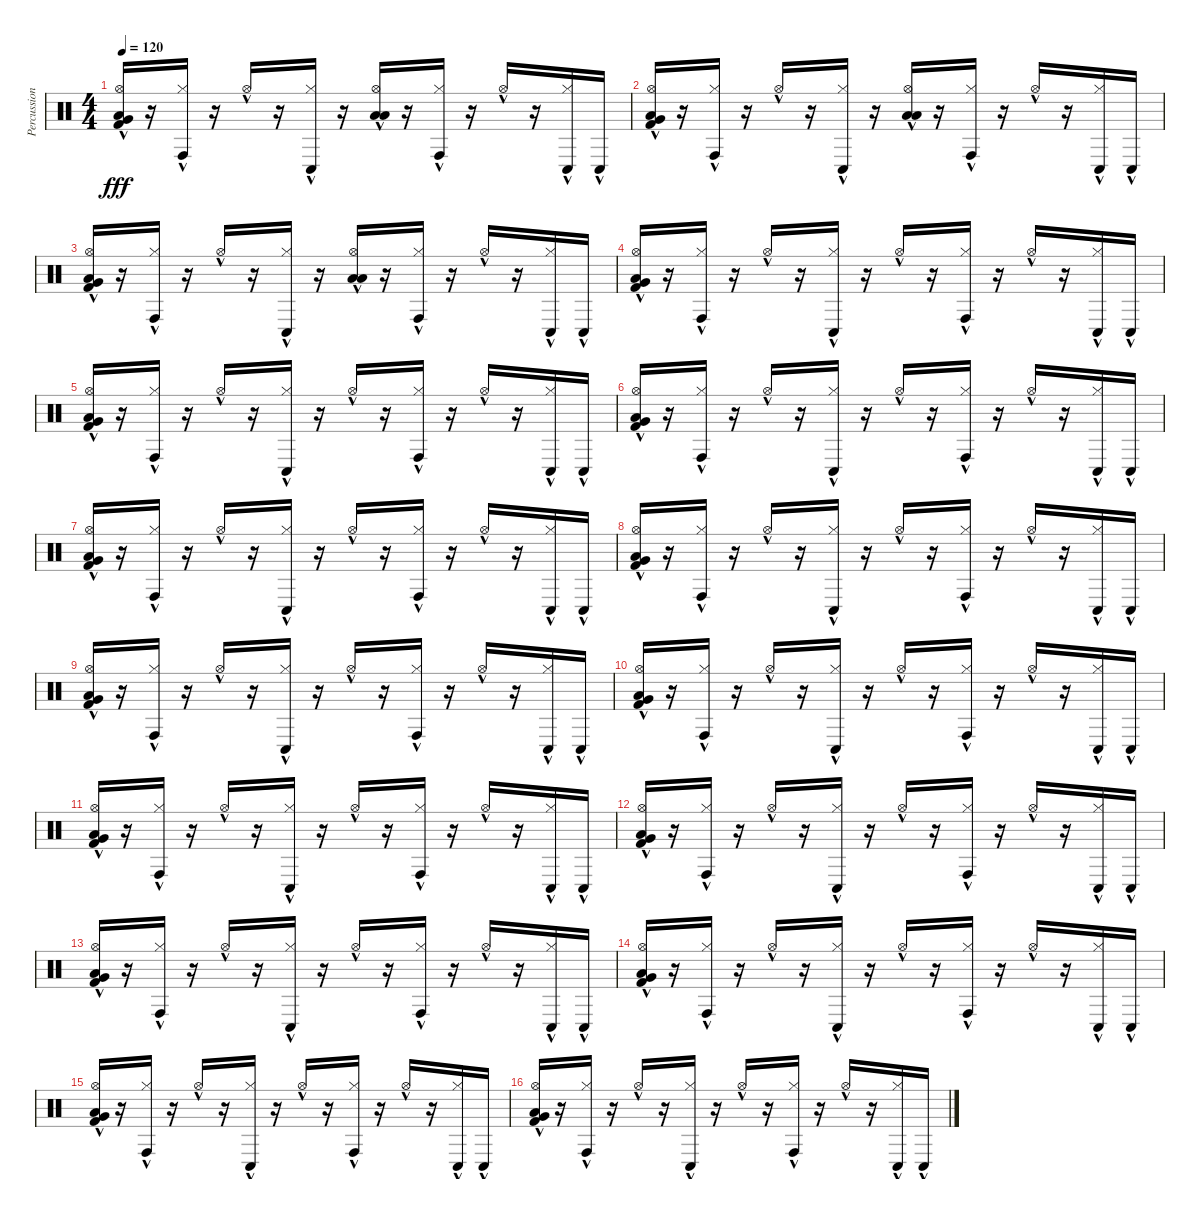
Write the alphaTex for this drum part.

\track ("Percussion" "Percussion") {instrument percussion}
\staff {score}
\articulation defaults
\ts (4 4)
\tempo 120
\clef neutral
\ks c
("Hi-Hat (open)"{hac} "Very Low Tom (hit)"{hac} "Low Floor Tom (hit)"{hac} "Kick (hit) 2"{hac}).16{dy fff} r.16 ("Hi-Hat (closed)"{hac} "Conga high (hit)"{hac}).16 r.16 "Hi-Hat (open)"{hac}.16 r.16 ("Hi-Hat (closed)"{hac} "Conga low (hit)"{hac}).16 r.16 ("Hi-Hat (open)"{hac} "Low Floor Tom (hit)"{hac} "Low Floor Tom (hit)"{hac}).16 r.16 ("Hi-Hat (closed)"{hac} "Conga high (hit)"{hac}).16 r.16 "Hi-Hat (open)"{hac}.16 r.16 ("Hi-Hat (closed)"{hac} "Conga low (hit)"{hac}).16 "Conga low (hit)"{hac}.16 |
("Hi-Hat (open)"{hac} "Very Low Tom (hit)"{hac} "Low Floor Tom (hit)"{hac} "Kick (hit) 2"{hac}).16 r.16 ("Hi-Hat (closed)"{hac} "Conga high (hit)"{hac}).16 r.16 "Hi-Hat (open)"{hac}.16 r.16 ("Hi-Hat (closed)"{hac} "Conga low (hit)"{hac}).16 r.16 ("Hi-Hat (open)"{hac} "Low Floor Tom (hit)"{hac} "Low Floor Tom (hit)"{hac}).16 r.16 ("Hi-Hat (closed)"{hac} "Conga high (hit)"{hac}).16 r.16 "Hi-Hat (open)"{hac}.16 r.16 ("Hi-Hat (closed)"{hac} "Conga low (hit)"{hac}).16 "Conga low (hit)"{hac}.16 |
("Hi-Hat (open)"{hac} "Very Low Tom (hit)"{hac} "Low Floor Tom (hit)"{hac} "Kick (hit) 2"{hac}).16 r.16 ("Hi-Hat (closed)"{hac} "Conga high (hit)"{hac}).16 r.16 "Hi-Hat (open)"{hac}.16 r.16 ("Hi-Hat (closed)"{hac} "Conga low (hit)"{hac}).16 r.16 ("Hi-Hat (open)"{hac} "Low Floor Tom (hit)"{hac} "Low Floor Tom (hit)"{hac}).16 r.16 ("Hi-Hat (closed)"{hac} "Conga high (hit)"{hac}).16 r.16 "Hi-Hat (open)"{hac}.16 r.16 ("Hi-Hat (closed)"{hac} "Conga low (hit)"{hac}).16 "Conga low (hit)"{hac}.16 |
("Hi-Hat (open)"{hac} "Very Low Tom (hit)"{hac} "Low Floor Tom (hit)"{hac} "Kick (hit) 2"{hac}).16 r.16 ("Hi-Hat (closed)"{hac} "Conga high (hit)"{hac}).16 r.16 "Hi-Hat (open)"{hac}.16 r.16 ("Hi-Hat (closed)"{hac} "Conga low (hit)"{hac}).16 r.16 "Hi-Hat (open)"{hac}.16 r.16 ("Hi-Hat (closed)"{hac} "Conga high (hit)"{hac}).16 r.16 "Hi-Hat (open)"{hac}.16 r.16 ("Hi-Hat (closed)"{hac} "Conga low (hit)"{hac}).16 "Conga low (hit)"{hac}.16 |
("Hi-Hat (open)"{hac} "Very Low Tom (hit)"{hac} "Low Floor Tom (hit)"{hac} "Kick (hit) 2"{hac}).16 r.16 ("Hi-Hat (closed)"{hac} "Conga high (hit)"{hac}).16 r.16 "Hi-Hat (open)"{hac}.16 r.16 ("Hi-Hat (closed)"{hac} "Conga low (hit)"{hac}).16 r.16 "Hi-Hat (open)"{hac}.16 r.16 ("Hi-Hat (closed)"{hac} "Conga high (hit)"{hac}).16 r.16 "Hi-Hat (open)"{hac}.16 r.16 ("Hi-Hat (closed)"{hac} "Conga low (hit)"{hac}).16 "Conga low (hit)"{hac}.16 |
("Hi-Hat (open)"{hac} "Very Low Tom (hit)"{hac} "Low Floor Tom (hit)"{hac} "Kick (hit) 2"{hac}).16 r.16 ("Hi-Hat (closed)"{hac} "Conga high (hit)"{hac}).16 r.16 "Hi-Hat (open)"{hac}.16 r.16 ("Hi-Hat (closed)"{hac} "Conga low (hit)"{hac}).16 r.16 "Hi-Hat (open)"{hac}.16 r.16 ("Hi-Hat (closed)"{hac} "Conga high (hit)"{hac}).16 r.16 "Hi-Hat (open)"{hac}.16 r.16 ("Hi-Hat (closed)"{hac} "Conga low (hit)"{hac}).16 "Conga low (hit)"{hac}.16 |
("Hi-Hat (open)"{hac} "Very Low Tom (hit)"{hac} "Low Floor Tom (hit)"{hac} "Kick (hit) 2"{hac}).16 r.16 ("Hi-Hat (closed)"{hac} "Conga high (hit)"{hac}).16 r.16 "Hi-Hat (open)"{hac}.16 r.16 ("Hi-Hat (closed)"{hac} "Conga low (hit)"{hac}).16 r.16 "Hi-Hat (open)"{hac}.16 r.16 ("Hi-Hat (closed)"{hac} "Conga high (hit)"{hac}).16 r.16 "Hi-Hat (open)"{hac}.16 r.16 ("Hi-Hat (closed)"{hac} "Conga low (hit)"{hac}).16 "Conga low (hit)"{hac}.16 |
("Hi-Hat (open)"{hac} "Very Low Tom (hit)"{hac} "Low Floor Tom (hit)"{hac} "Kick (hit) 2"{hac}).16 r.16 ("Hi-Hat (closed)"{hac} "Conga high (hit)"{hac}).16 r.16 "Hi-Hat (open)"{hac}.16 r.16 ("Hi-Hat (closed)"{hac} "Conga low (hit)"{hac}).16 r.16 "Hi-Hat (open)"{hac}.16 r.16 ("Hi-Hat (closed)"{hac} "Conga high (hit)"{hac}).16 r.16 "Hi-Hat (open)"{hac}.16 r.16 ("Hi-Hat (closed)"{hac} "Conga low (hit)"{hac}).16 "Conga low (hit)"{hac}.16 |
("Hi-Hat (open)"{hac} "Very Low Tom (hit)"{hac} "Low Floor Tom (hit)"{hac} "Kick (hit) 2"{hac}).16 r.16 ("Hi-Hat (closed)"{hac} "Conga high (hit)"{hac}).16 r.16 "Hi-Hat (open)"{hac}.16 r.16 ("Hi-Hat (closed)"{hac} "Conga low (hit)"{hac}).16 r.16 "Hi-Hat (open)"{hac}.16 r.16 ("Hi-Hat (closed)"{hac} "Conga high (hit)"{hac}).16 r.16 "Hi-Hat (open)"{hac}.16 r.16 ("Hi-Hat (closed)"{hac} "Conga low (hit)"{hac}).16 "Conga low (hit)"{hac}.16 |
("Hi-Hat (open)"{hac} "Very Low Tom (hit)"{hac} "Low Floor Tom (hit)"{hac} "Kick (hit) 2"{hac}).16 r.16 ("Hi-Hat (closed)"{hac} "Conga high (hit)"{hac}).16 r.16 "Hi-Hat (open)"{hac}.16 r.16 ("Hi-Hat (closed)"{hac} "Conga low (hit)"{hac}).16 r.16 "Hi-Hat (open)"{hac}.16 r.16 ("Hi-Hat (closed)"{hac} "Conga high (hit)"{hac}).16 r.16 "Hi-Hat (open)"{hac}.16 r.16 ("Hi-Hat (closed)"{hac} "Conga low (hit)"{hac}).16 "Conga low (hit)"{hac}.16 |
("Hi-Hat (open)"{hac} "Very Low Tom (hit)"{hac} "Low Floor Tom (hit)"{hac} "Kick (hit) 2"{hac}).16 r.16 ("Hi-Hat (closed)"{hac} "Conga high (hit)"{hac}).16 r.16 "Hi-Hat (open)"{hac}.16 r.16 ("Hi-Hat (closed)"{hac} "Conga low (hit)"{hac}).16 r.16 "Hi-Hat (open)"{hac}.16 r.16 ("Hi-Hat (closed)"{hac} "Conga high (hit)"{hac}).16 r.16 "Hi-Hat (open)"{hac}.16 r.16 ("Hi-Hat (closed)"{hac} "Conga low (hit)"{hac}).16 "Conga low (hit)"{hac}.16 |
("Hi-Hat (open)"{hac} "Very Low Tom (hit)"{hac} "Low Floor Tom (hit)"{hac} "Kick (hit) 2"{hac}).16 r.16 ("Hi-Hat (closed)"{hac} "Conga high (hit)"{hac}).16 r.16 "Hi-Hat (open)"{hac}.16 r.16 ("Hi-Hat (closed)"{hac} "Conga low (hit)"{hac}).16 r.16 "Hi-Hat (open)"{hac}.16 r.16 ("Hi-Hat (closed)"{hac} "Conga high (hit)"{hac}).16 r.16 "Hi-Hat (open)"{hac}.16 r.16 ("Hi-Hat (closed)"{hac} "Conga low (hit)"{hac}).16 "Conga low (hit)"{hac}.16 |
("Hi-Hat (open)"{hac} "Very Low Tom (hit)"{hac} "Low Floor Tom (hit)"{hac} "Kick (hit) 2"{hac}).16 r.16 ("Hi-Hat (closed)"{hac} "Conga high (hit)"{hac}).16 r.16 "Hi-Hat (open)"{hac}.16 r.16 ("Hi-Hat (closed)"{hac} "Conga low (hit)"{hac}).16 r.16 "Hi-Hat (open)"{hac}.16 r.16 ("Hi-Hat (closed)"{hac} "Conga high (hit)"{hac}).16 r.16 "Hi-Hat (open)"{hac}.16 r.16 ("Hi-Hat (closed)"{hac} "Conga low (hit)"{hac}).16 "Conga low (hit)"{hac}.16 |
("Hi-Hat (open)"{hac} "Very Low Tom (hit)"{hac} "Low Floor Tom (hit)"{hac} "Kick (hit) 2"{hac}).16 r.16 ("Hi-Hat (closed)"{hac} "Conga high (hit)"{hac}).16 r.16 "Hi-Hat (open)"{hac}.16 r.16 ("Hi-Hat (closed)"{hac} "Conga low (hit)"{hac}).16 r.16 "Hi-Hat (open)"{hac}.16 r.16 ("Hi-Hat (closed)"{hac} "Conga high (hit)"{hac}).16 r.16 "Hi-Hat (open)"{hac}.16 r.16 ("Hi-Hat (closed)"{hac} "Conga low (hit)"{hac}).16 "Conga low (hit)"{hac}.16 |
("Hi-Hat (open)"{hac} "Very Low Tom (hit)"{hac} "Low Floor Tom (hit)"{hac} "Kick (hit) 2"{hac}).16 r.16 ("Hi-Hat (closed)"{hac} "Conga high (hit)"{hac}).16 r.16 "Hi-Hat (open)"{hac}.16 r.16 ("Hi-Hat (closed)"{hac} "Conga low (hit)"{hac}).16 r.16 "Hi-Hat (open)"{hac}.16 r.16 ("Hi-Hat (closed)"{hac} "Conga high (hit)"{hac}).16 r.16 "Hi-Hat (open)"{hac}.16 r.16 ("Hi-Hat (closed)"{hac} "Conga low (hit)"{hac}).16 "Conga low (hit)"{hac}.16 |
("Hi-Hat (open)"{hac} "Very Low Tom (hit)"{hac} "Low Floor Tom (hit)"{hac} "Kick (hit) 2"{hac}).16 r.16 ("Hi-Hat (closed)"{hac} "Conga high (hit)"{hac}).16 r.16 "Hi-Hat (open)"{hac}.16 r.16 ("Hi-Hat (closed)"{hac} "Conga low (hit)"{hac}).16 r.16 "Hi-Hat (open)"{hac}.16 r.16 ("Hi-Hat (closed)"{hac} "Conga high (hit)"{hac}).16 r.16 "Hi-Hat (open)"{hac}.16 r.16 ("Hi-Hat (closed)"{hac} "Conga low (hit)"{hac}).16 "Conga low (hit)"{hac}.16
